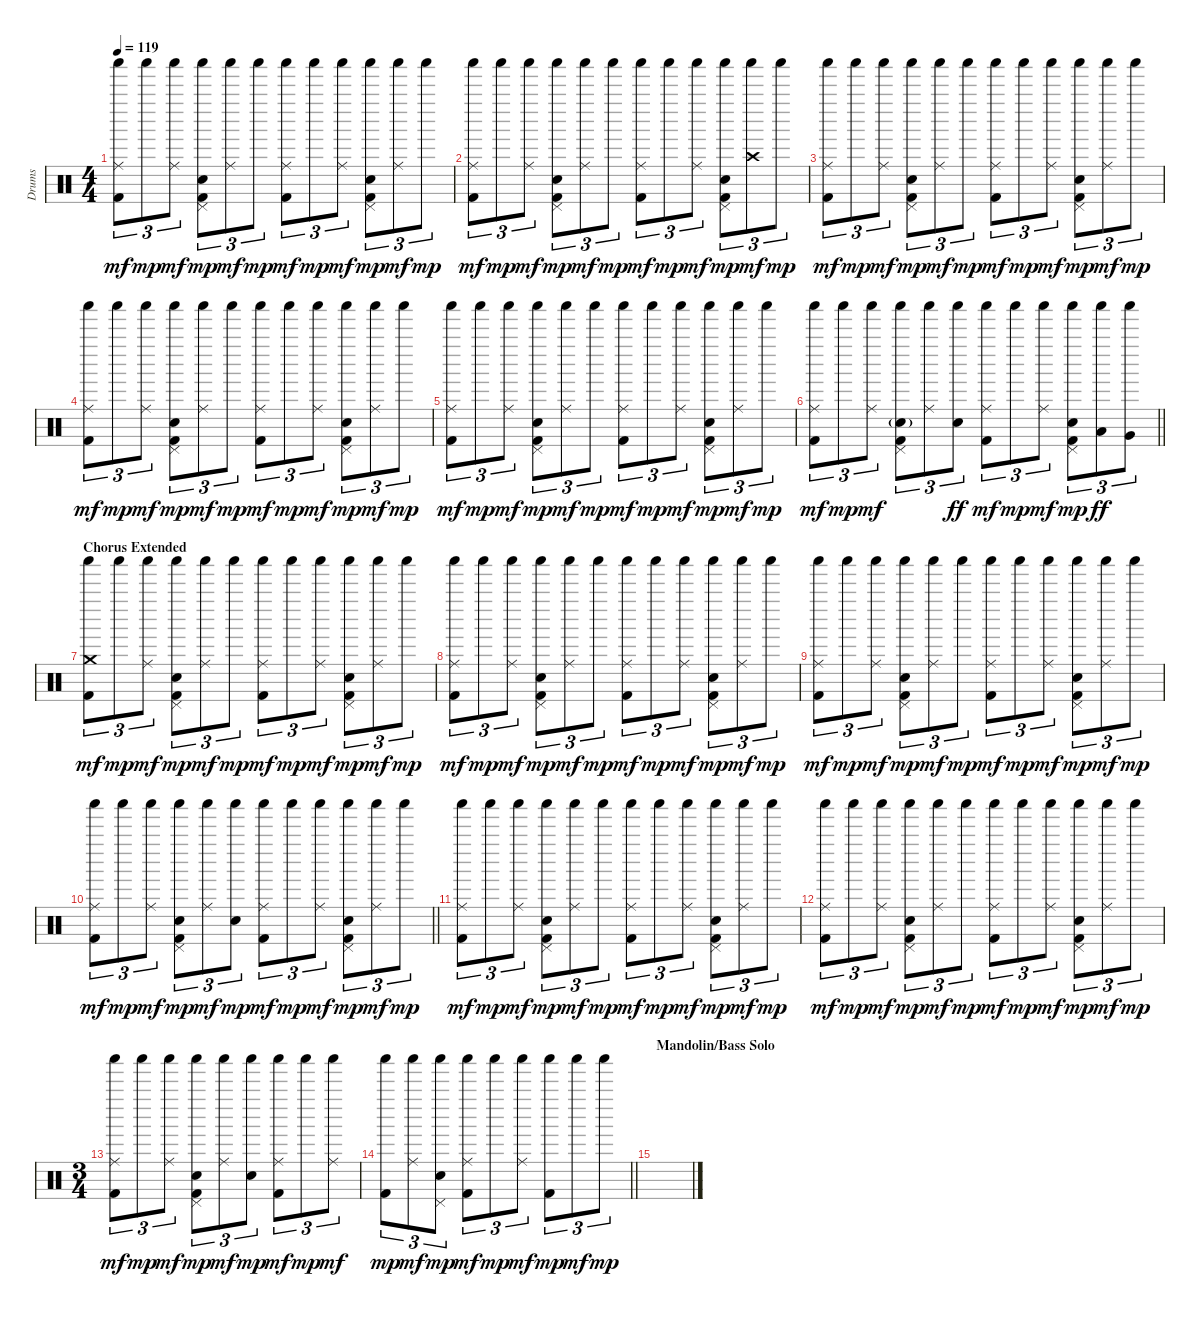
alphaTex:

\track ("Drums" "Drums") {instrument percussion}
\staff {score}
\articulation defaults
\ts (4 4)
\tempo 119
\clef neutral
\ks c
("Ride (middle)" "Shaker (hit)" "Kick (hit) 2").8{tu (3 2) dy mf} "Shaker (hit)".8{tu (3 2) dy mp} ("Ride (middle)" "Shaker (hit)").8{tu (3 2) dy mf} ("Pedal Hi-Hat (hit)" "Shaker (hit)" "Electric Snare (hit)" "Kick (hit) 2").8{tu (3 2) dy mp} ("Ride (middle)" "Shaker (hit)").8{tu (3 2) dy mf} "Shaker (hit)".8{tu (3 2) dy mp} ("Ride (middle)" "Shaker (hit)" "Kick (hit) 2").8{tu (3 2) dy mf} "Shaker (hit)".8{tu (3 2) dy mp} ("Ride (middle)" "Shaker (hit)").8{tu (3 2) dy mf} ("Pedal Hi-Hat (hit)" "Shaker (hit)" "Electric Snare (hit)" "Kick (hit) 2").8{tu (3 2) dy mp} ("Ride (middle)" "Shaker (hit)").8{tu (3 2) dy mf} "Shaker (hit)".8{tu (3 2) dy mp} |
("Ride (middle)" "Shaker (hit)" "Kick (hit) 2").8{tu (3 2) dy mf} "Shaker (hit)".8{tu (3 2) dy mp} ("Ride (middle)" "Shaker (hit)").8{tu (3 2) dy mf} ("Pedal Hi-Hat (hit)" "Shaker (hit)" "Electric Snare (hit)" "Kick (hit) 2").8{tu (3 2) dy mp} ("Ride (middle)" "Shaker (hit)").8{tu (3 2) dy mf} "Shaker (hit)".8{tu (3 2) dy mp} ("Ride (middle)" "Shaker (hit)" "Kick (hit) 2").8{tu (3 2) dy mf} "Shaker (hit)".8{tu (3 2) dy mp} ("Ride (middle)" "Shaker (hit)").8{tu (3 2) dy mf} ("Pedal Hi-Hat (hit)" "Shaker (hit)" "Electric Snare (hit)" "Kick (hit) 2").8{tu (3 2) dy mp} ("Crash high (hit)" "Shaker (hit)").8{tu (3 2) dy mf} "Shaker (hit)".8{tu (3 2) dy mp} |
("Ride (middle)" "Shaker (hit)" "Kick (hit) 2").8{tu (3 2) dy mf} "Shaker (hit)".8{tu (3 2) dy mp} ("Ride (middle)" "Shaker (hit)").8{tu (3 2) dy mf} ("Pedal Hi-Hat (hit)" "Shaker (hit)" "Electric Snare (hit)" "Kick (hit) 2").8{tu (3 2) dy mp} ("Ride (middle)" "Shaker (hit)").8{tu (3 2) dy mf} "Shaker (hit)".8{tu (3 2) dy mp} ("Ride (middle)" "Shaker (hit)" "Kick (hit) 2").8{tu (3 2) dy mf} "Shaker (hit)".8{tu (3 2) dy mp} ("Ride (middle)" "Shaker (hit)").8{tu (3 2) dy mf} ("Pedal Hi-Hat (hit)" "Shaker (hit)" "Electric Snare (hit)" "Kick (hit) 2").8{tu (3 2) dy mp} ("Ride (middle)" "Shaker (hit)").8{tu (3 2) dy mf} "Shaker (hit)".8{tu (3 2) dy mp} |
("Ride (middle)" "Shaker (hit)" "Kick (hit) 2").8{tu (3 2) dy mf} "Shaker (hit)".8{tu (3 2) dy mp} ("Ride (middle)" "Shaker (hit)").8{tu (3 2) dy mf} ("Pedal Hi-Hat (hit)" "Shaker (hit)" "Electric Snare (hit)" "Kick (hit) 2").8{tu (3 2) dy mp} ("Ride (middle)" "Shaker (hit)").8{tu (3 2) dy mf} "Shaker (hit)".8{tu (3 2) dy mp} ("Ride (middle)" "Shaker (hit)" "Kick (hit) 2").8{tu (3 2) dy mf} "Shaker (hit)".8{tu (3 2) dy mp} ("Ride (middle)" "Shaker (hit)").8{tu (3 2) dy mf} ("Pedal Hi-Hat (hit)" "Shaker (hit)" "Electric Snare (hit)" "Kick (hit) 2").8{tu (3 2) dy mp} ("Ride (middle)" "Shaker (hit)").8{tu (3 2) dy mf} "Shaker (hit)".8{tu (3 2) dy mp} |
("Ride (middle)" "Shaker (hit)" "Kick (hit) 2").8{tu (3 2) dy mf} "Shaker (hit)".8{tu (3 2) dy mp} ("Ride (middle)" "Shaker (hit)").8{tu (3 2) dy mf} ("Pedal Hi-Hat (hit)" "Shaker (hit)" "Electric Snare (hit)" "Kick (hit) 2").8{tu (3 2) dy mp} ("Ride (middle)" "Shaker (hit)").8{tu (3 2) dy mf} "Shaker (hit)".8{tu (3 2) dy mp} ("Ride (middle)" "Shaker (hit)" "Kick (hit) 2").8{tu (3 2) dy mf} "Shaker (hit)".8{tu (3 2) dy mp} ("Ride (middle)" "Shaker (hit)").8{tu (3 2) dy mf} ("Pedal Hi-Hat (hit)" "Shaker (hit)" "Electric Snare (hit)" "Kick (hit) 2").8{tu (3 2) dy mp} ("Ride (middle)" "Shaker (hit)").8{tu (3 2) dy mf} "Shaker (hit)".8{tu (3 2) dy mp} |
\barLineRight lightlight
("Ride (middle)" "Shaker (hit)" "Kick (hit) 2").8{tu (3 2) dy mf} "Shaker (hit)".8{tu (3 2) dy mp} ("Ride (middle)" "Shaker (hit)").8{tu (3 2) dy mf} ("Pedal Hi-Hat (hit)" "Shaker (hit)" "Electric Snare (hit)"{g} "Kick (hit) 2").8{tu (3 2)} ("Ride (middle)" "Shaker (hit)").8{tu (3 2)} ("Shaker (hit)" "Electric Snare (hit)").8{tu (3 2) dy ff} ("Ride (middle)" "Shaker (hit)" "Kick (hit) 2").8{tu (3 2) dy mf} "Shaker (hit)".8{tu (3 2) dy mp} ("Ride (middle)" "Shaker (hit)").8{tu (3 2) dy mf} ("Pedal Hi-Hat (hit)" "Shaker (hit)" "Electric Snare (hit)" "Kick (hit) 2").8{tu (3 2) dy mp} ("Shaker (hit)" "Low Tom (hit)").8{tu (3 2) dy ff} ("Shaker (hit)" "Very Low Tom (hit)").8{tu (3 2)} |
\section ("" "Chorus Extended")
("Crash medium (hit)" "Shaker (hit)" "Kick (hit) 2").8{tu (3 2) dy mf} "Shaker (hit)".8{tu (3 2) dy mp} ("Ride (middle)" "Shaker (hit)").8{tu (3 2) dy mf} ("Pedal Hi-Hat (hit)" "Shaker (hit)" "Electric Snare (hit)" "Kick (hit) 2").8{tu (3 2) dy mp} ("Ride (middle)" "Shaker (hit)").8{tu (3 2) dy mf} "Shaker (hit)".8{tu (3 2) dy mp} ("Ride (middle)" "Shaker (hit)" "Kick (hit) 2").8{tu (3 2) dy mf} "Shaker (hit)".8{tu (3 2) dy mp} ("Ride (middle)" "Shaker (hit)").8{tu (3 2) dy mf} ("Pedal Hi-Hat (hit)" "Shaker (hit)" "Electric Snare (hit)" "Kick (hit) 2").8{tu (3 2) dy mp} ("Ride (middle)" "Shaker (hit)").8{tu (3 2) dy mf} "Shaker (hit)".8{tu (3 2) dy mp} |
("Ride (middle)" "Shaker (hit)" "Kick (hit) 2").8{tu (3 2) dy mf} "Shaker (hit)".8{tu (3 2) dy mp} ("Ride (middle)" "Shaker (hit)").8{tu (3 2) dy mf} ("Pedal Hi-Hat (hit)" "Shaker (hit)" "Electric Snare (hit)" "Kick (hit) 2").8{tu (3 2) dy mp} ("Ride (middle)" "Shaker (hit)").8{tu (3 2) dy mf} "Shaker (hit)".8{tu (3 2) dy mp} ("Ride (middle)" "Shaker (hit)" "Kick (hit) 2").8{tu (3 2) dy mf} "Shaker (hit)".8{tu (3 2) dy mp} ("Ride (middle)" "Shaker (hit)").8{tu (3 2) dy mf} ("Pedal Hi-Hat (hit)" "Shaker (hit)" "Electric Snare (hit)" "Kick (hit) 2").8{tu (3 2) dy mp} ("Ride (middle)" "Shaker (hit)").8{tu (3 2) dy mf} "Shaker (hit)".8{tu (3 2) dy mp} |
("Ride (middle)" "Shaker (hit)" "Kick (hit) 2").8{tu (3 2) dy mf} "Shaker (hit)".8{tu (3 2) dy mp} ("Ride (middle)" "Shaker (hit)").8{tu (3 2) dy mf} ("Pedal Hi-Hat (hit)" "Shaker (hit)" "Electric Snare (hit)" "Kick (hit) 2").8{tu (3 2) dy mp} ("Ride (middle)" "Shaker (hit)").8{tu (3 2) dy mf} "Shaker (hit)".8{tu (3 2) dy mp} ("Ride (middle)" "Shaker (hit)" "Kick (hit) 2").8{tu (3 2) dy mf} "Shaker (hit)".8{tu (3 2) dy mp} ("Ride (middle)" "Shaker (hit)").8{tu (3 2) dy mf} ("Pedal Hi-Hat (hit)" "Shaker (hit)" "Electric Snare (hit)" "Kick (hit) 2").8{tu (3 2) dy mp} ("Ride (middle)" "Shaker (hit)").8{tu (3 2) dy mf} "Shaker (hit)".8{tu (3 2) dy mp} |
\barLineRight lightlight
("Ride (middle)" "Shaker (hit)" "Kick (hit) 2").8{tu (3 2) dy mf} "Shaker (hit)".8{tu (3 2) dy mp} ("Ride (middle)" "Shaker (hit)").8{tu (3 2) dy mf} ("Pedal Hi-Hat (hit)" "Shaker (hit)" "Electric Snare (hit)" "Kick (hit) 2").8{tu (3 2) dy mp} ("Ride (middle)" "Shaker (hit)").8{tu (3 2) dy mf} ("Shaker (hit)" "Electric Snare (hit)").8{tu (3 2) dy mp} ("Ride (middle)" "Shaker (hit)" "Kick (hit) 2").8{tu (3 2) dy mf} "Shaker (hit)".8{tu (3 2) dy mp} ("Ride (middle)" "Shaker (hit)").8{tu (3 2) dy mf} ("Pedal Hi-Hat (hit)" "Shaker (hit)" "Electric Snare (hit)" "Kick (hit) 2").8{tu (3 2) dy mp} ("Ride (middle)" "Shaker (hit)").8{tu (3 2) dy mf} "Shaker (hit)".8{tu (3 2) dy mp} |
("Ride (middle)" "Shaker (hit)" "Kick (hit) 2").8{tu (3 2) dy mf} "Shaker (hit)".8{tu (3 2) dy mp} ("Ride (middle)" "Shaker (hit)").8{tu (3 2) dy mf} ("Pedal Hi-Hat (hit)" "Shaker (hit)" "Electric Snare (hit)" "Kick (hit) 2").8{tu (3 2) dy mp} ("Ride (middle)" "Shaker (hit)").8{tu (3 2) dy mf} "Shaker (hit)".8{tu (3 2) dy mp} ("Ride (middle)" "Shaker (hit)" "Kick (hit) 2").8{tu (3 2) dy mf} "Shaker (hit)".8{tu (3 2) dy mp} ("Ride (middle)" "Shaker (hit)").8{tu (3 2) dy mf} ("Pedal Hi-Hat (hit)" "Shaker (hit)" "Electric Snare (hit)" "Kick (hit) 2").8{tu (3 2) dy mp} ("Ride (middle)" "Shaker (hit)").8{tu (3 2) dy mf} "Shaker (hit)".8{tu (3 2) dy mp} |
("Ride (middle)" "Shaker (hit)" "Kick (hit) 2").8{tu (3 2) dy mf} "Shaker (hit)".8{tu (3 2) dy mp} ("Ride (middle)" "Shaker (hit)").8{tu (3 2) dy mf} ("Pedal Hi-Hat (hit)" "Shaker (hit)" "Electric Snare (hit)" "Kick (hit) 2").8{tu (3 2) dy mp} ("Ride (middle)" "Shaker (hit)").8{tu (3 2) dy mf} "Shaker (hit)".8{tu (3 2) dy mp} ("Ride (middle)" "Shaker (hit)" "Kick (hit) 2").8{tu (3 2) dy mf} "Shaker (hit)".8{tu (3 2) dy mp} ("Ride (middle)" "Shaker (hit)").8{tu (3 2) dy mf} ("Pedal Hi-Hat (hit)" "Shaker (hit)" "Electric Snare (hit)" "Kick (hit) 2").8{tu (3 2) dy mp} ("Ride (middle)" "Shaker (hit)").8{tu (3 2) dy mf} "Shaker (hit)".8{tu (3 2) dy mp} |
\ts (3 4)
("Ride (middle)" "Shaker (hit)" "Kick (hit) 2").8{tu (3 2) dy mf} "Shaker (hit)".8{tu (3 2) dy mp} ("Ride (middle)" "Shaker (hit)").8{tu (3 2) dy mf} ("Pedal Hi-Hat (hit)" "Shaker (hit)" "Electric Snare (hit)" "Kick (hit) 2").8{tu (3 2) dy mp} ("Ride (middle)" "Shaker (hit)").8{tu (3 2) dy mf} ("Shaker (hit)" "Electric Snare (hit)").8{tu (3 2) dy mp} ("Ride (middle)" "Shaker (hit)" "Kick (hit) 2").8{tu (3 2) dy mf} "Shaker (hit)".8{tu (3 2) dy mp} ("Ride (middle)" "Shaker (hit)").8{tu (3 2) dy mf} |
\barLineRight lightlight
("Shaker (hit)" "Kick (hit) 2").8{tu (3 2) dy mp} ("Ride (middle)" "Shaker (hit)").8{tu (3 2) dy mf} ("Pedal Hi-Hat (hit)" "Shaker (hit)" "Electric Snare (hit)").8{tu (3 2) dy mp} ("Ride (middle)" "Shaker (hit)" "Kick (hit) 2").8{tu (3 2) dy mf} "Shaker (hit)".8{tu (3 2) dy mp} ("Ride (middle)" "Shaker (hit)").8{tu (3 2) dy mf} ("Shaker (hit)" "Kick (hit) 2").8{tu (3 2) dy mp} "Shaker (hit)".8{tu (3 2) dy mf} "Shaker (hit)".8{tu (3 2) dy mp} |
\section ("" "Mandolin/Bass Solo")
